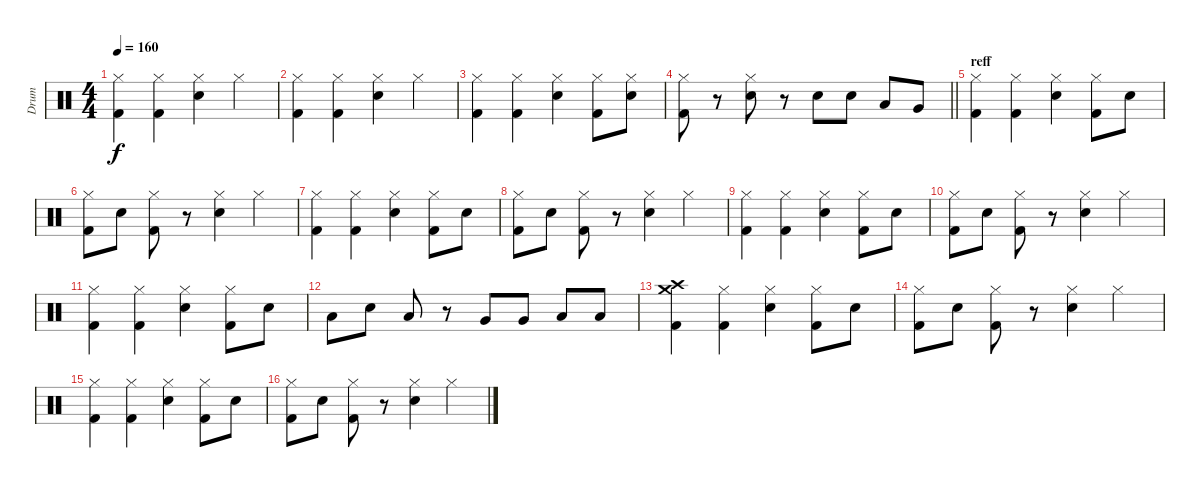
\track ("Drum" "Drum") {instrument percussion}
\staff {score}
\articulation defaults
\ts (4 4)
\tempo 160
\clef neutral
\ks c
("Hi-Hat (closed)" "Kick (hit) 2").4{dy f} ("Hi-Hat (closed)" "Kick (hit) 2").4 ("Hi-Hat (closed)" "Electric Snare (hit)").4 "Hi-Hat (closed)".4 |
("Hi-Hat (closed)" "Kick (hit) 2").4 ("Hi-Hat (closed)" "Kick (hit) 2").4 ("Hi-Hat (closed)" "Electric Snare (hit)").4 "Hi-Hat (closed)".4 |
("Hi-Hat (closed)" "Kick (hit) 2").4 ("Hi-Hat (closed)" "Kick (hit) 2").4 ("Hi-Hat (closed)" "Electric Snare (hit)").4 ("Hi-Hat (closed)" "Kick (hit) 2").8 ("Hi-Hat (closed)" "Electric Snare (hit)").8 |
\barLineRight lightlight
("Hi-Hat (closed)" "Kick (hit) 2").8 r.8 ("Hi-Hat (closed)" "Electric Snare (hit)").8 r.8 "Electric Snare (hit)".8 "Electric Snare (hit)".8 "Low Floor Tom (hit)".8 "Very Low Tom (hit)".8 |
\section ("" "reff")
("Hi-Hat (closed)" "Kick (hit) 2").4 ("Hi-Hat (closed)" "Kick (hit) 2").4 ("Hi-Hat (closed)" "Electric Snare (hit)").4 ("Hi-Hat (closed)" "Kick (hit) 2").8 "Electric Snare (hit)".8 |
("Hi-Hat (closed)" "Kick (hit) 2").8 "Electric Snare (hit)".8 ("Hi-Hat (closed)" "Kick (hit) 2").8 r.8 ("Hi-Hat (closed)" "Electric Snare (hit)").4 "Hi-Hat (closed)".4 |
("Hi-Hat (closed)" "Kick (hit) 2").4 ("Hi-Hat (closed)" "Kick (hit) 2").4 ("Hi-Hat (closed)" "Electric Snare (hit)").4 ("Hi-Hat (closed)" "Kick (hit) 2").8 "Electric Snare (hit)".8 |
("Hi-Hat (closed)" "Kick (hit) 2").8 "Electric Snare (hit)".8 ("Hi-Hat (closed)" "Kick (hit) 2").8 r.8 ("Hi-Hat (closed)" "Electric Snare (hit)").4 "Hi-Hat (closed)".4 |
("Hi-Hat (closed)" "Kick (hit) 2").4 ("Hi-Hat (closed)" "Kick (hit) 2").4 ("Hi-Hat (closed)" "Electric Snare (hit)").4 ("Hi-Hat (closed)" "Kick (hit) 2").8 "Electric Snare (hit)".8 |
("Hi-Hat (closed)" "Kick (hit) 2").8 "Electric Snare (hit)".8 ("Hi-Hat (closed)" "Kick (hit) 2").8 r.8 ("Hi-Hat (closed)" "Electric Snare (hit)").4 "Hi-Hat (closed)".4 |
("Hi-Hat (closed)" "Kick (hit) 2").4 ("Hi-Hat (closed)" "Kick (hit) 2").4 ("Hi-Hat (closed)" "Electric Snare (hit)").4 ("Hi-Hat (closed)" "Kick (hit) 2").8 "Electric Snare (hit)".8 |
"Low Floor Tom (hit)".8 "Electric Snare (hit)".8 "Low Floor Tom (hit)".8 r.8 "Very Low Tom (hit)".8 "Very Low Tom (hit)".8 "Low Tom (hit)".8 "Low Tom (hit)".8 |
("Crash high (hit)" "Crash medium (hit)" "Kick (hit) 2").4 ("Hi-Hat (closed)" "Kick (hit) 2").4 ("Hi-Hat (closed)" "Electric Snare (hit)").4 ("Hi-Hat (closed)" "Kick (hit) 2").8 "Electric Snare (hit)".8 |
("Hi-Hat (closed)" "Kick (hit) 2").8 "Electric Snare (hit)".8 ("Hi-Hat (closed)" "Kick (hit) 2").8 r.8 ("Hi-Hat (closed)" "Electric Snare (hit)").4 "Hi-Hat (closed)".4 |
("Hi-Hat (closed)" "Kick (hit) 2").4 ("Hi-Hat (closed)" "Kick (hit) 2").4 ("Hi-Hat (closed)" "Electric Snare (hit)").4 ("Hi-Hat (closed)" "Kick (hit) 2").8 "Electric Snare (hit)".8 |
("Hi-Hat (closed)" "Kick (hit) 2").8 "Electric Snare (hit)".8 ("Hi-Hat (closed)" "Kick (hit) 2").8 r.8 ("Hi-Hat (closed)" "Electric Snare (hit)").4 "Hi-Hat (closed)".4
